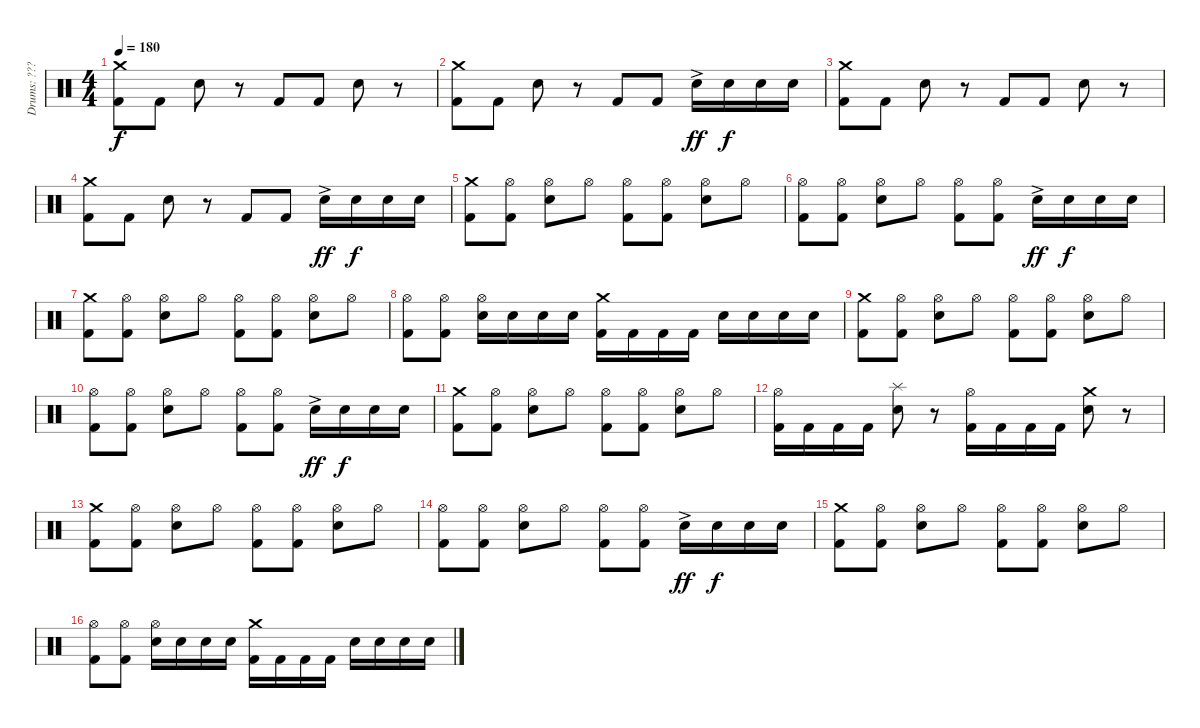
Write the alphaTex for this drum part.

\track ("Drums: ???" "Drums: ???") {instrument percussion}
\staff {score}
\articulation defaults
\ts (4 4)
\tempo 180
\clef neutral
\ks c
("Crash medium (hit)" "Kick (hit) 2").8{dy f} "Kick (hit) 2".8 "Snare (hit) 2".8 r.8 "Kick (hit) 2".8 "Kick (hit) 2".8 "Snare (hit) 2".8 r.8 |
("Crash medium (hit)" "Kick (hit) 2").8 "Kick (hit) 2".8 "Snare (hit) 2".8 r.8 "Kick (hit) 2".8 "Kick (hit) 2".8 "Snare (hit) 2"{ac}.16{dy ff} "Snare (hit) 2".16{dy f} "Snare (hit) 2".16 "Snare (hit) 2".16 |
("Crash medium (hit)" "Kick (hit) 2").8 "Kick (hit) 2".8 "Snare (hit) 2".8 r.8 "Kick (hit) 2".8 "Kick (hit) 2".8 "Snare (hit) 2".8 r.8 |
("Crash medium (hit)" "Kick (hit) 2").8 "Kick (hit) 2".8 "Snare (hit) 2".8 r.8 "Kick (hit) 2".8 "Kick (hit) 2".8 "Snare (hit) 2"{ac}.16{dy ff} "Snare (hit) 2".16{dy f} "Snare (hit) 2".16 "Snare (hit) 2".16 |
("Crash medium (hit)" "Kick (hit) 2").8 ("Hi-Hat (open)" "Kick (hit) 2").8 ("Hi-Hat (open)" "Snare (hit) 2").8 "Hi-Hat (open)".8 ("Hi-Hat (open)" "Kick (hit) 2").8 ("Hi-Hat (open)" "Kick (hit) 2").8 ("Hi-Hat (open)" "Snare (hit) 2").8 "Hi-Hat (open)".8 |
("Hi-Hat (open)" "Kick (hit) 2").8 ("Hi-Hat (open)" "Kick (hit) 2").8 ("Hi-Hat (open)" "Snare (hit) 2").8 "Hi-Hat (open)".8 ("Hi-Hat (open)" "Kick (hit) 2").8 ("Hi-Hat (open)" "Kick (hit) 2").8 "Snare (hit) 2"{ac}.16{dy ff} "Snare (hit) 2".16{dy f} "Snare (hit) 2".16 "Snare (hit) 2".16 |
("Crash medium (hit)" "Kick (hit) 2").8 ("Hi-Hat (open)" "Kick (hit) 2").8 ("Hi-Hat (open)" "Snare (hit) 2").8 "Hi-Hat (open)".8 ("Hi-Hat (open)" "Kick (hit) 2").8 ("Hi-Hat (open)" "Kick (hit) 2").8 ("Hi-Hat (open)" "Snare (hit) 2").8 "Hi-Hat (open)".8 |
("Hi-Hat (open)" "Kick (hit) 2").8 ("Hi-Hat (open)" "Kick (hit) 2").8 ("Hi-Hat (open)" "Snare (hit) 2").16 "Snare (hit) 2".16 "Snare (hit) 2".16 "Snare (hit) 2".16 ("Crash medium (hit)" "Kick (hit) 2").16 "Kick (hit) 2".16 "Kick (hit) 2".16 "Kick (hit) 2".16 "Snare (hit) 2".16 "Snare (hit) 2".16 "Snare (hit) 2".16 "Snare (hit) 2".16 |
("Crash medium (hit)" "Kick (hit) 2").8 ("Hi-Hat (open)" "Kick (hit) 2").8 ("Hi-Hat (open)" "Snare (hit) 2").8 "Hi-Hat (open)".8 ("Hi-Hat (open)" "Kick (hit) 2").8 ("Hi-Hat (open)" "Kick (hit) 2").8 ("Hi-Hat (open)" "Snare (hit) 2").8 "Hi-Hat (open)".8 |
("Hi-Hat (open)" "Kick (hit) 2").8 ("Hi-Hat (open)" "Kick (hit) 2").8 ("Hi-Hat (open)" "Snare (hit) 2").8 "Hi-Hat (open)".8 ("Hi-Hat (open)" "Kick (hit) 2").8 ("Hi-Hat (open)" "Kick (hit) 2").8 "Snare (hit) 2"{ac}.16{dy ff} "Snare (hit) 2".16{dy f} "Snare (hit) 2".16 "Snare (hit) 2".16 |
("Crash medium (hit)" "Kick (hit) 2").8 ("Hi-Hat (open)" "Kick (hit) 2").8 ("Hi-Hat (open)" "Snare (hit) 2").8 "Hi-Hat (open)".8 ("Hi-Hat (open)" "Kick (hit) 2").8 ("Hi-Hat (open)" "Kick (hit) 2").8 ("Hi-Hat (open)" "Snare (hit) 2").8 "Hi-Hat (open)".8 |
("Hi-Hat (open)" "Kick (hit) 2").16 "Kick (hit) 2".16 "Kick (hit) 2".16 "Kick (hit) 2".16 ("Electric Snare (hit)" "Splash (hit)").8 r.8 ("Kick (hit) 2" "Hi-Hat (open)").16 "Kick (hit) 2".16 "Kick (hit) 2".16 "Kick (hit) 2".16 ("Electric Snare (hit)" "Crash medium (hit)").8 r.8 |
("Crash medium (hit)" "Kick (hit) 2").8 ("Hi-Hat (open)" "Kick (hit) 2").8 ("Hi-Hat (open)" "Snare (hit) 2").8 "Hi-Hat (open)".8 ("Hi-Hat (open)" "Kick (hit) 2").8 ("Hi-Hat (open)" "Kick (hit) 2").8 ("Hi-Hat (open)" "Snare (hit) 2").8 "Hi-Hat (open)".8 |
("Hi-Hat (open)" "Kick (hit) 2").8 ("Hi-Hat (open)" "Kick (hit) 2").8 ("Hi-Hat (open)" "Snare (hit) 2").8 "Hi-Hat (open)".8 ("Hi-Hat (open)" "Kick (hit) 2").8 ("Hi-Hat (open)" "Kick (hit) 2").8 "Snare (hit) 2"{ac}.16{dy ff} "Snare (hit) 2".16{dy f} "Snare (hit) 2".16 "Snare (hit) 2".16 |
("Crash medium (hit)" "Kick (hit) 2").8 ("Hi-Hat (open)" "Kick (hit) 2").8 ("Hi-Hat (open)" "Snare (hit) 2").8 "Hi-Hat (open)".8 ("Hi-Hat (open)" "Kick (hit) 2").8 ("Hi-Hat (open)" "Kick (hit) 2").8 ("Hi-Hat (open)" "Snare (hit) 2").8 "Hi-Hat (open)".8 |
("Hi-Hat (open)" "Kick (hit) 2").8 ("Hi-Hat (open)" "Kick (hit) 2").8 ("Hi-Hat (open)" "Snare (hit) 2").16 "Snare (hit) 2".16 "Snare (hit) 2".16 "Snare (hit) 2".16 ("Crash medium (hit)" "Kick (hit) 2").16 "Kick (hit) 2".16 "Kick (hit) 2".16 "Kick (hit) 2".16 "Snare (hit) 2".16 "Snare (hit) 2".16 "Snare (hit) 2".16 "Snare (hit) 2".16
